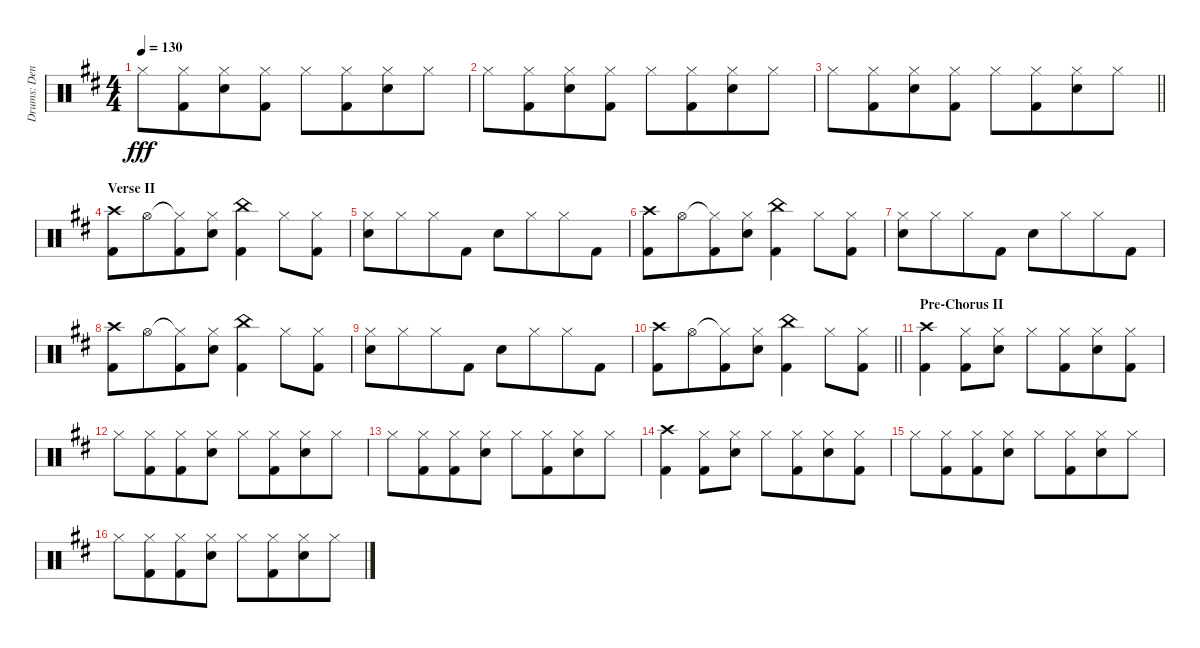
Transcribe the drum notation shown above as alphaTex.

\track ("Drums: Denny" "Drums: Den") {instrument percussion}
\staff {score}
\articulation defaults
\ts (4 4)
\tempo 130
\clef neutral
\ks d "Hi-Hat (closed)".8{dy fff}
("Hi-Hat (closed)" "Kick (hit) 2").8{beam merge} ("Hi-Hat (closed)" "Electric Snare (hit)").8 ("Hi-Hat (closed)" "Kick (hit) 2").8 "Hi-Hat (closed)".8 ("Hi-Hat (closed)" "Kick (hit) 2").8{beam merge} ("Hi-Hat (closed)" "Electric Snare (hit)").8 "Hi-Hat (closed)".8 |
"Hi-Hat (closed)".8 ("Hi-Hat (closed)" "Kick (hit) 2").8{beam merge} ("Hi-Hat (closed)" "Electric Snare (hit)").8 ("Hi-Hat (closed)" "Kick (hit) 2").8 "Hi-Hat (closed)".8 ("Hi-Hat (closed)" "Kick (hit) 2").8{beam merge} ("Hi-Hat (closed)" "Electric Snare (hit)").8 "Hi-Hat (closed)".8 |
\barLineRight lightlight "Hi-Hat (closed)".8
("Hi-Hat (closed)" "Kick (hit) 2").8{beam merge} ("Hi-Hat (closed)" "Electric Snare (hit)").8 ("Hi-Hat (closed)" "Kick (hit) 2").8 "Hi-Hat (closed)".8 ("Hi-Hat (closed)" "Kick (hit) 2").8{beam merge} ("Hi-Hat (closed)" "Electric Snare (hit)").8 "Hi-Hat (closed)".8 |
\section ("" "Verse II")
("Crash high (hit)" "Kick (hit) 2").8 "Hi-Hat (open)".8{beam merge} ("Hi-Hat (closed)"{t} "Kick (hit) 2").8{beam merge} ("Hi-Hat (closed)" "Electric Snare (hit)").8 ("China (hit)" "Kick (hit) 2").4 "Hi-Hat (closed)".8{beam merge} ("Hi-Hat (closed)" "Kick (hit) 2").8 |
("Hi-Hat (closed)" "Electric Snare (hit)").8 "Hi-Hat (closed)".8{beam merge} "Hi-Hat (closed)".8 "Kick (hit) 2".8 "Electric Snare (hit)".8 "Hi-Hat (closed)".8{beam merge} "Hi-Hat (closed)".8 "Kick (hit) 2".8 |
("Crash high (hit)" "Kick (hit) 2").8 "Hi-Hat (open)".8{beam merge} ("Hi-Hat (closed)"{t} "Kick (hit) 2").8{beam merge} ("Hi-Hat (closed)" "Electric Snare (hit)").8 ("China (hit)" "Kick (hit) 2").4 "Hi-Hat (closed)".8{beam merge} ("Hi-Hat (closed)" "Kick (hit) 2").8 |
("Hi-Hat (closed)" "Electric Snare (hit)").8 "Hi-Hat (closed)".8{beam merge} "Hi-Hat (closed)".8 "Kick (hit) 2".8 "Electric Snare (hit)".8 "Hi-Hat (closed)".8{beam merge} "Hi-Hat (closed)".8 "Kick (hit) 2".8 |
("Crash high (hit)" "Kick (hit) 2").8 "Hi-Hat (open)".8{beam merge} ("Hi-Hat (closed)"{t} "Kick (hit) 2").8{beam merge} ("Hi-Hat (closed)" "Electric Snare (hit)").8 ("China (hit)" "Kick (hit) 2").4 "Hi-Hat (closed)".8{beam merge} ("Hi-Hat (closed)" "Kick (hit) 2").8 |
("Hi-Hat (closed)" "Electric Snare (hit)").8 "Hi-Hat (closed)".8{beam merge} "Hi-Hat (closed)".8 "Kick (hit) 2".8 "Electric Snare (hit)".8 "Hi-Hat (closed)".8{beam merge} "Hi-Hat (closed)".8 "Kick (hit) 2".8 |
\barLineRight lightlight
("Crash high (hit)" "Kick (hit) 2").8 "Hi-Hat (open)".8{beam merge} ("Hi-Hat (closed)"{t} "Kick (hit) 2").8{beam merge} ("Hi-Hat (closed)" "Electric Snare (hit)").8 ("China (hit)" "Kick (hit) 2").4 "Hi-Hat (closed)".8{beam merge} ("Hi-Hat (closed)" "Kick (hit) 2").8 |
\section ("" "Pre-Chorus II")
("Crash high (hit)" "Kick (hit) 2").4{beam merge} ("Hi-Hat (closed)" "Kick (hit) 2").8{beam merge} ("Hi-Hat (closed)" "Electric Snare (hit)").8 "Hi-Hat (closed)".8 ("Hi-Hat (closed)" "Kick (hit) 2").8{beam merge} ("Hi-Hat (closed)" "Electric Snare (hit)").8{beam merge} ("Hi-Hat (closed)" "Kick (hit) 2").8 |
"Hi-Hat (closed)".8 ("Hi-Hat (closed)" "Kick (hit) 2").8{beam merge} ("Hi-Hat (closed)" "Kick (hit) 2").8{beam merge} ("Hi-Hat (closed)" "Electric Snare (hit)").8 "Hi-Hat (closed)".8 ("Hi-Hat (closed)" "Kick (hit) 2").8{beam merge} ("Hi-Hat (closed)" "Electric Snare (hit)").8{beam merge} "Hi-Hat (closed)".8 |
"Hi-Hat (closed)".8 ("Hi-Hat (closed)" "Kick (hit) 2").8{beam merge} ("Hi-Hat (closed)" "Kick (hit) 2").8{beam merge} ("Hi-Hat (closed)" "Electric Snare (hit)").8 "Hi-Hat (closed)".8 ("Hi-Hat (closed)" "Kick (hit) 2").8{beam merge} ("Hi-Hat (closed)" "Electric Snare (hit)").8{beam merge} "Hi-Hat (closed)".8 |
("Crash high (hit)" "Kick (hit) 2").4{beam merge} ("Hi-Hat (closed)" "Kick (hit) 2").8{beam merge} ("Hi-Hat (closed)" "Electric Snare (hit)").8 "Hi-Hat (closed)".8 ("Hi-Hat (closed)" "Kick (hit) 2").8{beam merge} ("Hi-Hat (closed)" "Electric Snare (hit)").8{beam merge} ("Hi-Hat (closed)" "Kick (hit) 2").8 |
"Hi-Hat (closed)".8 ("Hi-Hat (closed)" "Kick (hit) 2").8{beam merge} ("Hi-Hat (closed)" "Kick (hit) 2").8{beam merge} ("Hi-Hat (closed)" "Electric Snare (hit)").8 "Hi-Hat (closed)".8 ("Hi-Hat (closed)" "Kick (hit) 2").8{beam merge} ("Hi-Hat (closed)" "Electric Snare (hit)").8{beam merge} "Hi-Hat (closed)".8 |
"Hi-Hat (closed)".8 ("Hi-Hat (closed)" "Kick (hit) 2").8{beam merge} ("Hi-Hat (closed)" "Kick (hit) 2").8{beam merge} ("Hi-Hat (closed)" "Electric Snare (hit)").8 "Hi-Hat (closed)".8 ("Hi-Hat (closed)" "Kick (hit) 2").8{beam merge} ("Hi-Hat (closed)" "Electric Snare (hit)").8{beam merge} "Hi-Hat (closed)".8
